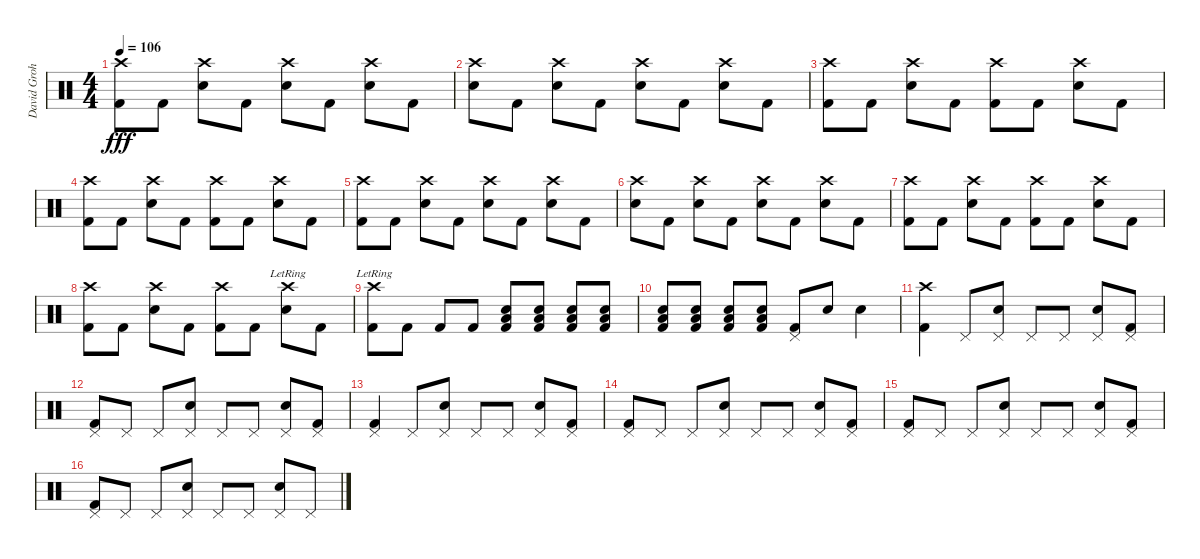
\track ("David Grohl 2 Crash Style !!" "David Groh") {instrument percussion}
\staff {score}
\articulation defaults
\ts (4 4)
\tempo 106
\clef neutral
\ks c
("Crash high (hit)" "Kick (hit) 2").8{dy fff} "Kick (hit) 2".8 ("Crash high (hit)" "Snare (hit) 2").8 "Kick (hit) 2".8 ("Crash high (hit)" "Snare (hit) 2").8 "Kick (hit) 2".8 ("Crash high (hit)" "Snare (hit) 2").8 "Kick (hit) 2".8 |
("Crash high (hit)" "Snare (hit) 2").8 "Kick (hit) 2".8 ("Crash high (hit)" "Snare (hit) 2").8 "Kick (hit) 2".8 ("Crash high (hit)" "Snare (hit) 2").8 "Kick (hit) 2".8 ("Crash high (hit)" "Snare (hit) 2").8 "Kick (hit) 2".8 |
("Crash high (hit)" "Kick (hit) 2").8 "Kick (hit) 2".8 ("Crash high (hit)" "Snare (hit) 2").8 "Kick (hit) 2".8 ("Crash high (hit)" "Kick (hit) 2").8 "Kick (hit) 2".8 ("Crash high (hit)" "Snare (hit) 2").8 "Kick (hit) 2".8 |
("Crash high (hit)" "Kick (hit) 2").8 "Kick (hit) 2".8 ("Crash high (hit)" "Snare (hit) 2").8 "Kick (hit) 2".8 ("Crash high (hit)" "Kick (hit) 2").8 "Kick (hit) 2".8 ("Crash high (hit)" "Snare (hit) 2").8 "Kick (hit) 2".8 |
("Crash high (hit)" "Kick (hit) 2").8 "Kick (hit) 2".8 ("Crash high (hit)" "Snare (hit) 2").8 "Kick (hit) 2".8 ("Crash high (hit)" "Snare (hit) 2").8 "Kick (hit) 2".8 ("Crash high (hit)" "Snare (hit) 2").8 "Kick (hit) 2".8 |
("Crash high (hit)" "Snare (hit) 2").8 "Kick (hit) 2".8 ("Crash high (hit)" "Snare (hit) 2").8 "Kick (hit) 2".8 ("Crash high (hit)" "Snare (hit) 2").8 "Kick (hit) 2".8 ("Crash high (hit)" "Snare (hit) 2").8 "Kick (hit) 2".8 |
("Crash high (hit)" "Kick (hit) 2").8 "Kick (hit) 2".8 ("Crash high (hit)" "Snare (hit) 2").8 "Kick (hit) 2".8 ("Crash high (hit)" "Kick (hit) 2").8 "Kick (hit) 2".8 ("Crash high (hit)" "Snare (hit) 2").8 "Kick (hit) 2".8 |
("Crash high (hit)" "Kick (hit) 2").8 "Kick (hit) 2".8 ("Crash high (hit)" "Snare (hit) 2").8 "Kick (hit) 2".8 ("Crash high (hit)" "Kick (hit) 2").8 "Kick (hit) 2".8 ("Crash high (hit)"{lr} "Snare (hit) 2").8 "Kick (hit) 2".8 |
("Crash high (hit)"{lr} "Kick (hit) 2").8 "Kick (hit) 2".8 "Kick (hit) 2".8 "Kick (hit) 2".8 ("Snare (hit) 2" "Low Tom (hit)" "Kick (hit) 2").8 ("Snare (hit) 2" "Low Tom (hit)" "Kick (hit) 2").8 ("Snare (hit) 2" "Low Tom (hit)" "Kick (hit) 2").8 ("Snare (hit) 2" "Low Tom (hit)" "Kick (hit) 2").8 |
("Snare (hit) 2" "Low Tom (hit)" "Kick (hit) 2").8 ("Snare (hit) 2" "Low Tom (hit)" "Kick (hit) 2").8 ("Snare (hit) 2" "Low Tom (hit)" "Kick (hit) 2").8 ("Snare (hit) 2" "Low Tom (hit)" "Kick (hit) 2").8 ("Pedal Hi-Hat (hit)" "Kick (hit) 2").8 "Snare (hit) 2".8 "Snare (hit) 2".4 |
("Crash high (hit)" "Kick (hit) 2").4 "Pedal Hi-Hat (hit)".8 ("Pedal Hi-Hat (hit)" "Snare (hit) 2").8 "Pedal Hi-Hat (hit)".8 "Pedal Hi-Hat (hit)".8 ("Pedal Hi-Hat (hit)" "Snare (hit) 2").8 ("Pedal Hi-Hat (hit)" "Kick (hit) 2").8 |
("Pedal Hi-Hat (hit)" "Kick (hit) 2").8 "Pedal Hi-Hat (hit)".8 "Pedal Hi-Hat (hit)".8 ("Pedal Hi-Hat (hit)" "Snare (hit) 2").8 "Pedal Hi-Hat (hit)".8 "Pedal Hi-Hat (hit)".8 ("Pedal Hi-Hat (hit)" "Snare (hit) 2").8 ("Pedal Hi-Hat (hit)" "Kick (hit) 2").8 |
("Pedal Hi-Hat (hit)" "Kick (hit) 2").4 "Pedal Hi-Hat (hit)".8 ("Pedal Hi-Hat (hit)" "Snare (hit) 2").8 "Pedal Hi-Hat (hit)".8 "Pedal Hi-Hat (hit)".8 ("Pedal Hi-Hat (hit)" "Snare (hit) 2").8 ("Pedal Hi-Hat (hit)" "Kick (hit) 2").8 |
("Pedal Hi-Hat (hit)" "Kick (hit) 2").8 "Pedal Hi-Hat (hit)".8 "Pedal Hi-Hat (hit)".8 ("Pedal Hi-Hat (hit)" "Snare (hit) 2").8 "Pedal Hi-Hat (hit)".8 "Pedal Hi-Hat (hit)".8 ("Pedal Hi-Hat (hit)" "Snare (hit) 2").8 ("Pedal Hi-Hat (hit)" "Kick (hit) 2").8 |
("Pedal Hi-Hat (hit)" "Kick (hit) 2").8 "Pedal Hi-Hat (hit)".8 "Pedal Hi-Hat (hit)".8 ("Pedal Hi-Hat (hit)" "Snare (hit) 2").8 "Pedal Hi-Hat (hit)".8 "Pedal Hi-Hat (hit)".8 ("Pedal Hi-Hat (hit)" "Snare (hit) 2").8 ("Pedal Hi-Hat (hit)" "Kick (hit) 2").8 |
("Pedal Hi-Hat (hit)" "Kick (hit) 2").8 "Pedal Hi-Hat (hit)".8 "Pedal Hi-Hat (hit)".8 ("Pedal Hi-Hat (hit)" "Snare (hit) 2").8 "Pedal Hi-Hat (hit)".8 "Pedal Hi-Hat (hit)".8 ("Pedal Hi-Hat (hit)" "Snare (hit) 2").8 "Pedal Hi-Hat (hit)".8
